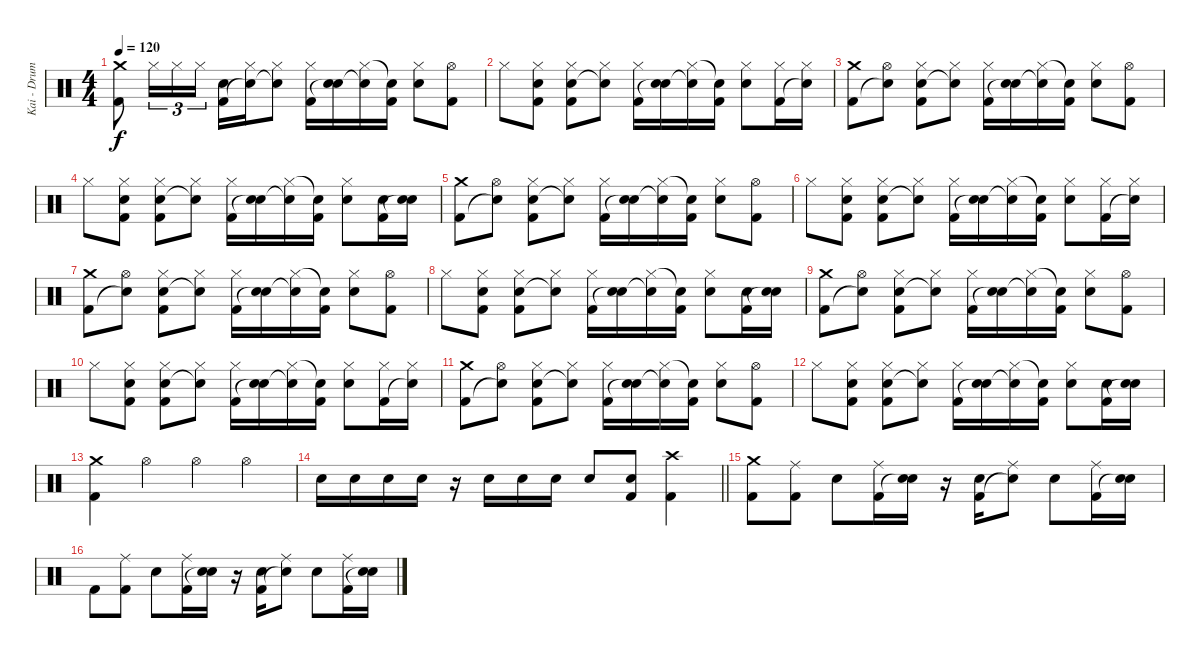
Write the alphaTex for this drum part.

\track ("Kai - Drums" "Kai - Drum") {instrument percussion}
\staff {score}
\articulation defaults
\ts (4 4)
\tempo 120
\clef neutral
\ks c
("Crash medium (hit)" "Kick (hit) 2").8{dy f} "Hi-Hat (closed)".16{tu (3 2)} "Hi-Hat (closed)".16{tu (3 2)} "Hi-Hat (closed)".16{tu (3 2)} ("Snare (hit) 2" "Kick (hit) 2").16 ("Hi-Hat (closed)" "Snare (hit)"{t}).16 ("Hi-Hat (closed)" "Snare (hit)"{t}).8 ("Hi-Hat (closed)" "Kick (hit) 2").16 ("Snare (hit) 2" "Snare (hit)"{t}).16 ("Hi-Hat (closed)" "Snare (hit)"{t}).16 ("Snare (hit)"{t} "Kick (hit) 2").16 ("Hi-Hat (closed)" "Snare (hit) 2").8 ("Hi-Hat (open)" "Kick (hit) 2").8 |
"Hi-Hat (closed)".8 ("Hi-Hat (closed)" "Snare (hit) 2" "Kick (hit) 2").8 ("Hi-Hat (closed)" "Snare (hit) 2" "Kick (hit) 2").8 ("Hi-Hat (closed)" "Snare (hit)"{t}).8 ("Hi-Hat (closed)" "Kick (hit) 2").16 ("Snare (hit) 2" "Snare (hit)"{t}).16 ("Hi-Hat (closed)" "Snare (hit)"{t}).16 ("Snare (hit)"{t} "Kick (hit) 2").16 ("Hi-Hat (closed)" "Snare (hit) 2").8 ("Hi-Hat (closed)" "Kick (hit) 2").16 ("Hi-Hat (closed)" "Snare (hit)"{t}).16 |
("Crash medium (hit)" "Kick (hit) 2").8 ("Hi-Hat (open)" "Snare (hit)"{t}).8 ("Hi-Hat (closed)" "Snare (hit) 2" "Kick (hit) 2").8 ("Hi-Hat (closed)" "Snare (hit)"{t}).8 ("Hi-Hat (closed)" "Kick (hit) 2").16 ("Snare (hit) 2" "Snare (hit)"{t}).16 ("Hi-Hat (closed)" "Snare (hit)"{t}).16 ("Snare (hit)"{t} "Kick (hit) 2").16 ("Hi-Hat (closed)" "Snare (hit) 2").8 ("Hi-Hat (open)" "Kick (hit) 2").8 |
"Hi-Hat (closed)".8 ("Hi-Hat (closed)" "Snare (hit) 2" "Kick (hit) 2").8 ("Hi-Hat (closed)" "Snare (hit) 2" "Kick (hit) 2").8 ("Hi-Hat (closed)" "Snare (hit)"{t}).8 ("Hi-Hat (closed)" "Kick (hit) 2").16 ("Snare (hit) 2" "Snare (hit)"{t}).16 ("Hi-Hat (closed)" "Snare (hit)"{t}).16 ("Snare (hit) 2"{t} "Kick (hit) 2").16 ("Hi-Hat (closed)" "Snare (hit) 2").8 ("Snare (hit) 2" "Kick (hit) 2").16 ("Snare (hit) 2" "Snare (hit)"{t}).16 |
("Crash medium (hit)" "Kick (hit) 2").8 ("Hi-Hat (open)" "Snare (hit)"{t}).8 ("Hi-Hat (closed)" "Snare (hit) 2" "Kick (hit) 2").8 ("Hi-Hat (closed)" "Snare (hit)"{t}).8 ("Hi-Hat (closed)" "Kick (hit) 2").16 ("Snare (hit) 2" "Snare (hit)"{t}).16 ("Hi-Hat (closed)" "Snare (hit)"{t}).16 ("Snare (hit)"{t} "Kick (hit) 2").16 ("Hi-Hat (closed)" "Snare (hit) 2").8 ("Hi-Hat (open)" "Kick (hit) 2").8 |
"Hi-Hat (closed)".8 ("Hi-Hat (closed)" "Snare (hit) 2" "Kick (hit) 2").8 ("Hi-Hat (closed)" "Snare (hit) 2" "Kick (hit) 2").8 ("Hi-Hat (closed)" "Snare (hit)"{t}).8 ("Hi-Hat (closed)" "Kick (hit) 2").16 ("Snare (hit) 2" "Snare (hit)"{t}).16 ("Hi-Hat (closed)" "Snare (hit)"{t}).16 ("Snare (hit)"{t} "Kick (hit) 2").16 ("Hi-Hat (closed)" "Snare (hit) 2").8 ("Hi-Hat (closed)" "Kick (hit) 2").16 ("Hi-Hat (closed)" "Snare (hit)"{t}).16 |
("Crash medium (hit)" "Kick (hit) 2").8 ("Hi-Hat (open)" "Snare (hit)"{t}).8 ("Hi-Hat (closed)" "Snare (hit) 2" "Kick (hit) 2").8 ("Hi-Hat (closed)" "Snare (hit)"{t}).8 ("Hi-Hat (closed)" "Kick (hit) 2").16 ("Snare (hit) 2" "Snare (hit)"{t}).16 ("Hi-Hat (closed)" "Snare (hit)"{t}).16 ("Snare (hit)"{t} "Kick (hit) 2").16 ("Hi-Hat (closed)" "Snare (hit) 2").8 ("Hi-Hat (open)" "Kick (hit) 2").8 |
"Hi-Hat (closed)".8 ("Hi-Hat (closed)" "Snare (hit) 2" "Kick (hit) 2").8 ("Hi-Hat (closed)" "Snare (hit) 2" "Kick (hit) 2").8 ("Hi-Hat (closed)" "Snare (hit)"{t}).8 ("Hi-Hat (closed)" "Kick (hit) 2").16 ("Snare (hit) 2" "Snare (hit)"{t}).16 ("Hi-Hat (closed)" "Snare (hit)"{t}).16 ("Snare (hit)"{t} "Kick (hit) 2").16 ("Hi-Hat (closed)" "Snare (hit) 2").8 ("Snare (hit) 2" "Kick (hit) 2").16 ("Snare (hit) 2" "Snare (hit)"{t}).16 |
("Crash medium (hit)" "Kick (hit) 2").8 ("Hi-Hat (open)" "Snare (hit)"{t}).8 ("Hi-Hat (closed)" "Snare (hit) 2" "Kick (hit) 2").8 ("Hi-Hat (closed)" "Snare (hit)"{t}).8 ("Hi-Hat (closed)" "Kick (hit) 2").16 ("Snare (hit) 2" "Snare (hit)"{t}).16 ("Hi-Hat (closed)" "Snare (hit)"{t}).16 ("Snare (hit)"{t} "Kick (hit) 2").16 ("Hi-Hat (closed)" "Snare (hit) 2").8 ("Hi-Hat (open)" "Kick (hit) 2").8 |
"Hi-Hat (closed)".8 ("Hi-Hat (closed)" "Snare (hit) 2" "Kick (hit) 2").8 ("Hi-Hat (closed)" "Snare (hit) 2" "Kick (hit) 2").8 ("Hi-Hat (closed)" "Snare (hit)"{t}).8 ("Hi-Hat (closed)" "Kick (hit) 2").16 ("Snare (hit) 2" "Snare (hit)"{t}).16 ("Hi-Hat (closed)" "Snare (hit)"{t}).16 ("Snare (hit)"{t} "Kick (hit) 2").16 ("Hi-Hat (closed)" "Snare (hit) 2").8 ("Hi-Hat (closed)" "Kick (hit) 2").16 ("Hi-Hat (closed)" "Snare (hit)"{t}).16 |
("Crash medium (hit)" "Kick (hit) 2").8 ("Hi-Hat (open)" "Snare (hit)"{t}).8 ("Hi-Hat (closed)" "Snare (hit) 2" "Kick (hit) 2").8 ("Hi-Hat (closed)" "Snare (hit)"{t}).8 ("Hi-Hat (closed)" "Kick (hit) 2").16 ("Snare (hit) 2" "Snare (hit)"{t}).16 ("Hi-Hat (closed)" "Snare (hit)"{t}).16 ("Snare (hit)"{t} "Kick (hit) 2").16 ("Hi-Hat (closed)" "Snare (hit) 2").8 ("Hi-Hat (open)" "Kick (hit) 2").8 |
"Hi-Hat (closed)".8 ("Hi-Hat (closed)" "Snare (hit) 2" "Kick (hit) 2").8 ("Hi-Hat (closed)" "Snare (hit) 2" "Kick (hit) 2").8 ("Hi-Hat (closed)" "Snare (hit)"{t}).8 ("Hi-Hat (closed)" "Kick (hit) 2").16 ("Snare (hit) 2" "Snare (hit)"{t}).16 ("Hi-Hat (closed)" "Snare (hit)"{t}).16 ("Snare (hit)"{t} "Kick (hit) 2").16 ("Hi-Hat (closed)" "Snare (hit) 2").8 ("Snare (hit) 2" "Kick (hit) 2").16 ("Snare (hit) 2" "Snare (hit)"{t}).16 |
("Crash medium (hit)" "Kick (hit) 2").4 "Hi-Hat (open)".4 "Hi-Hat (open)".4 "Hi-Hat (open)".4 |
\barLineRight lightlight "Snare (hit) 2".16 "Snare (hit) 2".16 "Snare (hit) 2".16 "Snare (hit) 2".16
r.16 "Snare (hit) 2".16 "Snare (hit) 2".16 "Snare (hit) 2".16 "Snare (hit) 2".8 ("Snare (hit) 2" "Kick (hit) 2").8 ("Crash high (hit)" "Kick (hit) 2").4 |
("Crash medium (hit)" "Kick (hit) 2").8 ("Ride (middle)" "Kick (hit) 2").8 "Snare (hit) 2".8 ("Ride (middle)" "Kick (hit) 2").16 ("Snare (hit) 2" "Snare (hit)"{t}).16 r.16 ("Snare (hit) 2" "Kick (hit) 2").16 ("Ride (middle)" "Snare (hit)"{t}).8 "Snare (hit) 2".8 ("Ride (middle)" "Kick (hit) 2").16 ("Snare (hit) 2" "Snare (hit)"{t}).16 |
"Kick (hit) 2".8 ("Ride (middle)" "Kick (hit) 2").8 "Snare (hit) 2".8 ("Ride (middle)" "Kick (hit) 2").16 ("Snare (hit) 2" "Snare (hit)"{t}).16 r.16 ("Snare (hit) 2" "Kick (hit) 2").16 ("Ride (middle)" "Snare (hit)"{t}).8 "Snare (hit) 2".8 ("Ride (middle)" "Kick (hit) 2").16 ("Snare (hit) 2" "Snare (hit)"{t}).16
